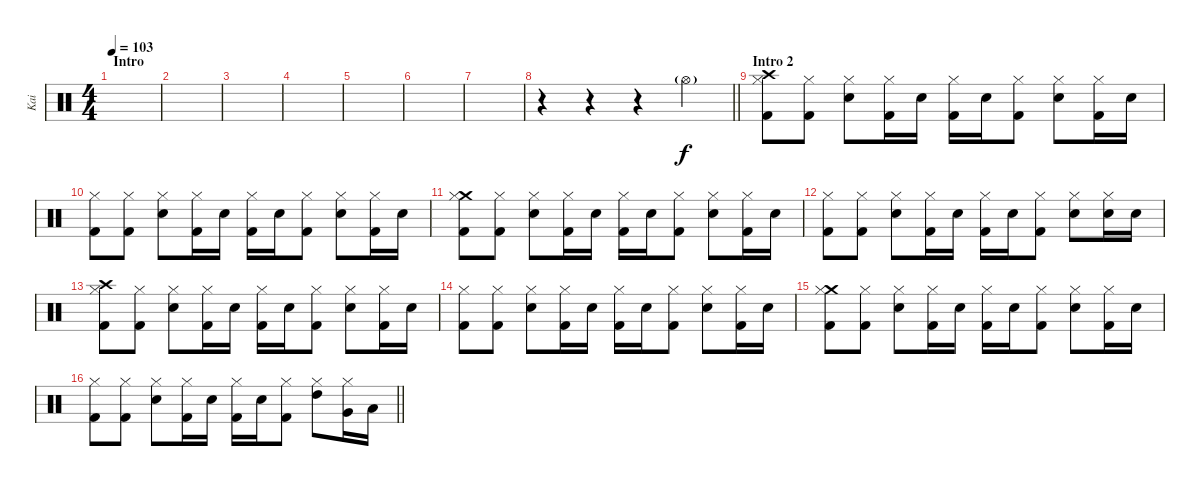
\track ("Kai" "Kai") {instrument percussion}
\staff {score}
\articulation defaults
\ts (4 4)
\section ("" "Intro")
\tempo 103
\clef neutral
\ks c
|
|
|
|
|
|
|
\barLineRight lightlight
r.4 r.4 r.4 "Hi-Hat (open)"{g}.4 |
\section ("" "Intro 2")
("Crash high (hit)" "Hi-Hat (closed)" "Kick (hit) 2").8{dy f} ("Hi-Hat (closed)" "Kick (hit) 2").8 ("Hi-Hat (closed)" "Electric Snare (hit)").8 ("Hi-Hat (closed)" "Kick (hit) 2").16 "Electric Snare (hit)".16 ("Hi-Hat (closed)" "Kick (hit) 2").16 "Electric Snare (hit)".16 ("Hi-Hat (closed)" "Kick (hit) 2").8 ("Hi-Hat (closed)" "Electric Snare (hit)").8 ("Hi-Hat (closed)" "Kick (hit) 2").16 "Electric Snare (hit)".16 |
("Hi-Hat (closed)" "Kick (hit) 2").8 ("Hi-Hat (closed)" "Kick (hit) 2").8 ("Hi-Hat (closed)" "Electric Snare (hit)").8 ("Hi-Hat (closed)" "Kick (hit) 2").16 "Electric Snare (hit)".16 ("Hi-Hat (closed)" "Kick (hit) 2").16 "Electric Snare (hit)".16 ("Hi-Hat (closed)" "Kick (hit) 2").8 ("Hi-Hat (closed)" "Electric Snare (hit)").8 ("Hi-Hat (closed)" "Kick (hit) 2").16 "Electric Snare (hit)".16 |
("Crash medium (hit)" "Hi-Hat (closed)" "Kick (hit) 2").8 ("Hi-Hat (closed)" "Kick (hit) 2").8 ("Hi-Hat (closed)" "Electric Snare (hit)").8 ("Hi-Hat (closed)" "Kick (hit) 2").16 "Electric Snare (hit)".16 ("Hi-Hat (closed)" "Kick (hit) 2").16 "Electric Snare (hit)".16 ("Hi-Hat (closed)" "Kick (hit) 2").8 ("Hi-Hat (closed)" "Electric Snare (hit)").8 ("Hi-Hat (closed)" "Kick (hit) 2").16 "Electric Snare (hit)".16 |
("Hi-Hat (closed)" "Kick (hit) 2").8 ("Hi-Hat (closed)" "Kick (hit) 2").8 ("Hi-Hat (closed)" "Electric Snare (hit)").8 ("Hi-Hat (closed)" "Kick (hit) 2").16 "Electric Snare (hit)".16 ("Hi-Hat (closed)" "Kick (hit) 2").16 "Electric Snare (hit)".16 ("Hi-Hat (closed)" "Kick (hit) 2").8 ("Hi-Hat (closed)" "Electric Snare (hit)").8 ("Hi-Hat (closed)" "Electric Snare (hit)").16 "Electric Snare (hit)".16 |
("Crash high (hit)" "Hi-Hat (closed)" "Kick (hit) 2").8 ("Hi-Hat (closed)" "Kick (hit) 2").8 ("Hi-Hat (closed)" "Electric Snare (hit)").8 ("Hi-Hat (closed)" "Kick (hit) 2").16 "Electric Snare (hit)".16 ("Hi-Hat (closed)" "Kick (hit) 2").16 "Electric Snare (hit)".16 ("Hi-Hat (closed)" "Kick (hit) 2").8 ("Hi-Hat (closed)" "Electric Snare (hit)").8 ("Hi-Hat (closed)" "Kick (hit) 2").16 "Electric Snare (hit)".16 |
("Hi-Hat (closed)" "Kick (hit) 2").8 ("Hi-Hat (closed)" "Kick (hit) 2").8 ("Hi-Hat (closed)" "Electric Snare (hit)").8 ("Hi-Hat (closed)" "Kick (hit) 2").16 "Electric Snare (hit)".16 ("Hi-Hat (closed)" "Kick (hit) 2").16 "Electric Snare (hit)".16 ("Hi-Hat (closed)" "Kick (hit) 2").8 ("Hi-Hat (closed)" "Electric Snare (hit)").8 ("Hi-Hat (closed)" "Kick (hit) 2").16 "Electric Snare (hit)".16 |
("Crash medium (hit)" "Hi-Hat (closed)" "Kick (hit) 2").8 ("Hi-Hat (closed)" "Kick (hit) 2").8 ("Hi-Hat (closed)" "Electric Snare (hit)").8 ("Hi-Hat (closed)" "Kick (hit) 2").16 "Electric Snare (hit)".16 ("Hi-Hat (closed)" "Kick (hit) 2").16 "Electric Snare (hit)".16 ("Hi-Hat (closed)" "Kick (hit) 2").8 ("Hi-Hat (closed)" "Electric Snare (hit)").8 ("Hi-Hat (closed)" "Kick (hit) 2").16 "Electric Snare (hit)".16 |
\barLineRight lightlight
("Hi-Hat (closed)" "Kick (hit) 2").8 ("Hi-Hat (closed)" "Kick (hit) 2").8 ("Hi-Hat (closed)" "Electric Snare (hit)").8 ("Hi-Hat (closed)" "Kick (hit) 2").16 "Electric Snare (hit)".16 ("Hi-Hat (closed)" "Kick (hit) 2").16 "Electric Snare (hit)".16 ("Hi-Hat (closed)" "Kick (hit) 2").8 ("Hi-Hat (closed)" "High Tom (hit)").8 ("Hi-Hat (closed)" "Very Low Tom (hit)").16 "Low Floor Tom (hit)".16
